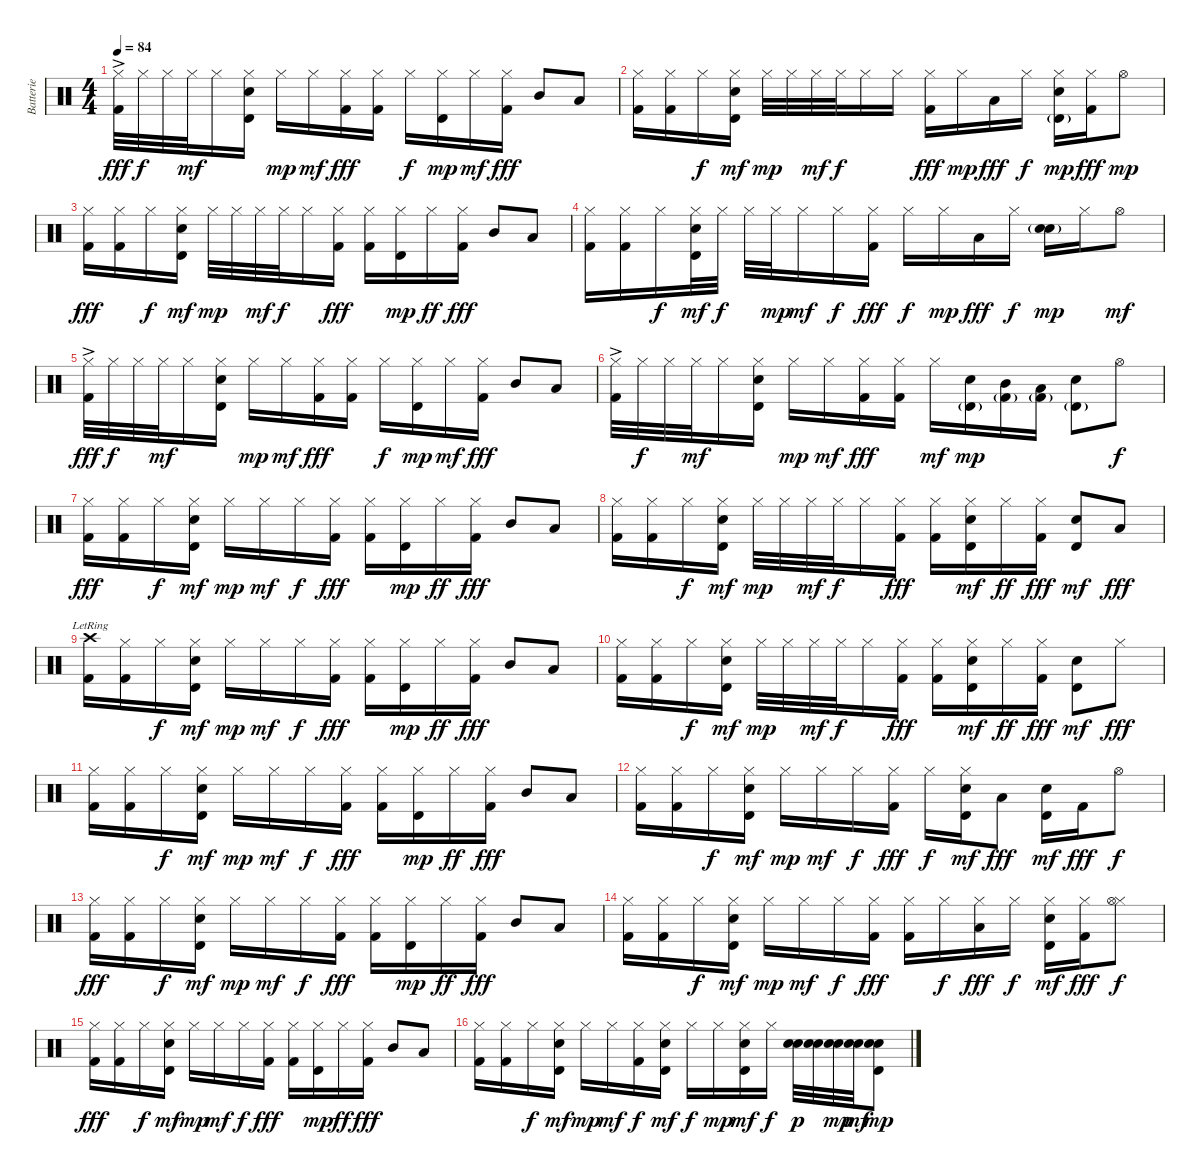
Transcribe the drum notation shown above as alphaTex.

\track ("Batterie" "Batterie") {instrument percussion}
\staff {score}
\articulation defaults
\ts (4 4)
\tempo 84
\clef neutral
\ks c
("Hi-Hat (closed)"{ac} "Kick (hit) 2").32{dy fff} "Hi-Hat (closed)".32{dy f} "Hi-Hat (closed)".32 "Hi-Hat (closed)".32{dy mf} "Hi-Hat (closed)".16 ("Hi-Hat (closed)" "Electric Snare (hit)" "Timbale high (hit)").16 "Hi-Hat (closed)".16{dy mp} "Hi-Hat (closed)".16{dy mf} ("Hi-Hat (closed)" "Kick (hit) 2").16{dy fff} ("Hi-Hat (closed)" "Kick (hit) 2").16 "Hi-Hat (closed)".16{dy f} ("Hi-Hat (closed)" "Timbale high (hit)").16{dy mp} "Hi-Hat (closed)".16{dy mf} ("Hi-Hat (closed)" "Kick (hit) 2").16{dy fff} "Mid Tom (hit)".8 "Low Tom (hit)".8 |
("Hi-Hat (closed)" "Kick (hit) 2").16 ("Hi-Hat (closed)" "Kick (hit) 2").16 "Hi-Hat (closed)".16{dy f} ("Hi-Hat (closed)" "Electric Snare (hit)" "Timbale high (hit)").16{dy mf} "Hi-Hat (closed)".32{dy mp} "Hi-Hat (closed)".32 "Hi-Hat (closed)".32{dy mf} "Hi-Hat (closed)".32{dy f} "Hi-Hat (closed)".16 "Hi-Hat (closed)".16 ("Hi-Hat (closed)" "Kick (hit) 2").16{dy fff} "Hi-Hat (closed)".16{dy mp} "Low Tom (hit)".16{dy fff} "Hi-Hat (closed)".16{dy f} ("Hi-Hat (closed)" "Electric Snare (hit)" "Timbale high (hit)"{g}).16{dy mp} ("Hi-Hat (closed)" "Kick (hit) 2").16{dy fff} "Hi-Hat (open)".8{dy mp} |
("Hi-Hat (closed)" "Kick (hit) 2").16{dy fff} ("Hi-Hat (closed)" "Kick (hit) 2").16 "Hi-Hat (closed)".16{dy f} ("Hi-Hat (closed)" "Electric Snare (hit)" "Timbale high (hit)").16{dy mf} "Hi-Hat (closed)".32{dy mp} "Hi-Hat (closed)".32 "Hi-Hat (closed)".32{dy mf} "Hi-Hat (closed)".32{dy f} "Hi-Hat (closed)".16 ("Hi-Hat (closed)" "Kick (hit) 2").16{dy fff} ("Hi-Hat (closed)" "Kick (hit) 2").16 ("Hi-Hat (closed)" "Timbale high (hit)").16{dy mp} "Hi-Hat (closed)".16{dy ff} ("Hi-Hat (closed)" "Kick (hit) 2").16{dy fff} "Mid Tom (hit)".8 "Low Tom (hit)".8 |
("Hi-Hat (closed)" "Kick (hit) 2").16 ("Hi-Hat (closed)" "Kick (hit) 2").16 "Hi-Hat (closed)".16{dy f} ("Hi-Hat (closed)" "Electric Snare (hit)" "Timbale high (hit)").32{dy mf} "Hi-Hat (closed)".32{dy f} "Hi-Hat (closed)".32 "Hi-Hat (closed)".32{dy mp} "Hi-Hat (closed)".16{dy mf} "Hi-Hat (closed)".16{dy f} ("Hi-Hat (closed)" "Kick (hit) 2").16{dy fff} "Hi-Hat (closed)".16{dy f} "Hi-Hat (closed)".16{dy mp} "Low Tom (hit)".16{dy fff} "Hi-Hat (closed)".16{dy f} ("Electric Snare (hit)" "Snare (hit) 2"{g}).16{dy mp} "Hi-Hat (closed)".16 "Hi-Hat (open)".8{dy mf} |
("Hi-Hat (closed)"{ac} "Kick (hit) 2").32{dy fff} "Hi-Hat (closed)".32{dy f} "Hi-Hat (closed)".32 "Hi-Hat (closed)".32{dy mf} "Hi-Hat (closed)".16 ("Hi-Hat (closed)" "Electric Snare (hit)" "Timbale high (hit)").16 "Hi-Hat (closed)".16{dy mp} "Hi-Hat (closed)".16{dy mf} ("Hi-Hat (closed)" "Kick (hit) 2").16{dy fff} ("Hi-Hat (closed)" "Kick (hit) 2").16 "Hi-Hat (closed)".16{dy f} ("Hi-Hat (closed)" "Timbale high (hit)").16{dy mp} "Hi-Hat (closed)".16{dy mf} ("Hi-Hat (closed)" "Kick (hit) 2").16{dy fff} "Mid Tom (hit)".8 "Low Tom (hit)".8 |
("Hi-Hat (closed)"{ac} "Kick (hit) 2").32 "Hi-Hat (closed)".32{dy f} "Hi-Hat (closed)".32 "Hi-Hat (closed)".32{dy mf} "Hi-Hat (closed)".16 ("Hi-Hat (closed)" "Electric Snare (hit)" "Timbale high (hit)").16 "Hi-Hat (closed)".16{dy mp} "Hi-Hat (closed)".16{dy mf} ("Hi-Hat (closed)" "Kick (hit) 2").16{dy fff} ("Hi-Hat (closed)" "Kick (hit) 2").16 "Hi-Hat (closed)".16{dy mf} ("Electric Snare (hit)" "Timbale high (hit)"{g}).16{dy mp} ("Mid Tom (hit)" "Kick (hit) 2"{g}).16 ("Low Tom (hit)" "Kick (hit) 2"{g}).16 ("Electric Snare (hit)" "Timbale high (hit)"{g}).8 "Hi-Hat (open)".8{dy f} |
("Hi-Hat (closed)" "Kick (hit) 2").16{dy fff} ("Hi-Hat (closed)" "Kick (hit) 2").16 "Hi-Hat (closed)".16{dy f} ("Hi-Hat (closed)" "Electric Snare (hit)" "Timbale high (hit)").16{dy mf} "Hi-Hat (closed)".16{dy mp} "Hi-Hat (closed)".16{dy mf} "Hi-Hat (closed)".16{dy f} ("Hi-Hat (closed)" "Kick (hit) 2").16{dy fff} ("Hi-Hat (closed)" "Kick (hit) 2").16 ("Hi-Hat (closed)" "Timbale high (hit)").16{dy mp} "Hi-Hat (closed)".16{dy ff} ("Hi-Hat (closed)" "Kick (hit) 2").16{dy fff} "Mid Tom (hit)".8 "Low Tom (hit)".8 |
("Hi-Hat (closed)" "Kick (hit) 2").16 ("Hi-Hat (closed)" "Kick (hit) 2").16 "Hi-Hat (closed)".16{dy f} ("Hi-Hat (closed)" "Electric Snare (hit)" "Timbale high (hit)").16{dy mf} "Hi-Hat (closed)".32{dy mp} "Hi-Hat (closed)".32 "Hi-Hat (closed)".32{dy mf} "Hi-Hat (closed)".32{dy f} "Hi-Hat (closed)".16 ("Hi-Hat (closed)" "Kick (hit) 2").16{dy fff} ("Hi-Hat (closed)" "Kick (hit) 2").16 ("Hi-Hat (closed)" "Electric Snare (hit)" "Timbale high (hit)").16{dy mf} "Hi-Hat (closed)".16{dy ff} ("Hi-Hat (closed)" "Kick (hit) 2").16{dy fff} ("Electric Snare (hit)" "Timbale high (hit)").8{dy mf} "Low Tom (hit)".8{dy fff} |
("Crash high (hit)"{lr} "Kick (hit) 2").16 ("Hi-Hat (closed)" "Kick (hit) 2").16 "Hi-Hat (closed)".16{dy f} ("Hi-Hat (closed)" "Electric Snare (hit)" "Timbale high (hit)").16{dy mf} "Hi-Hat (closed)".16{dy mp} "Hi-Hat (closed)".16{dy mf} "Hi-Hat (closed)".16{dy f} ("Hi-Hat (closed)" "Kick (hit) 2").16{dy fff} ("Hi-Hat (closed)" "Kick (hit) 2").16 ("Hi-Hat (closed)" "Timbale high (hit)").16{dy mp} "Hi-Hat (closed)".16{dy ff} ("Hi-Hat (closed)" "Kick (hit) 2").16{dy fff} "Mid Tom (hit)".8 "Low Tom (hit)".8 |
("Hi-Hat (closed)" "Kick (hit) 2").16 ("Hi-Hat (closed)" "Kick (hit) 2").16 "Hi-Hat (closed)".16{dy f} ("Hi-Hat (closed)" "Electric Snare (hit)" "Timbale high (hit)").16{dy mf} "Hi-Hat (closed)".32{dy mp} "Hi-Hat (closed)".32 "Hi-Hat (closed)".32{dy mf} "Hi-Hat (closed)".32{dy f} "Hi-Hat (closed)".16 ("Hi-Hat (closed)" "Kick (hit) 2").16{dy fff} ("Hi-Hat (closed)" "Kick (hit) 2").16 ("Hi-Hat (closed)" "Electric Snare (hit)" "Timbale high (hit)").16{dy mf} "Hi-Hat (closed)".16{dy ff} ("Hi-Hat (closed)" "Kick (hit) 2").16{dy fff} ("Electric Snare (hit)" "Timbale high (hit)").8{dy mf} "Hi-Hat (closed)".8{dy fff} |
("Hi-Hat (closed)" "Kick (hit) 2").16 ("Hi-Hat (closed)" "Kick (hit) 2").16 "Hi-Hat (closed)".16{dy f} ("Hi-Hat (closed)" "Electric Snare (hit)" "Timbale high (hit)").16{dy mf} "Hi-Hat (closed)".16{dy mp} "Hi-Hat (closed)".16{dy mf} "Hi-Hat (closed)".16{dy f} ("Hi-Hat (closed)" "Kick (hit) 2").16{dy fff} ("Hi-Hat (closed)" "Kick (hit) 2").16 ("Hi-Hat (closed)" "Timbale high (hit)").16{dy mp} "Hi-Hat (closed)".16{dy ff} ("Hi-Hat (closed)" "Kick (hit) 2").16{dy fff} "Mid Tom (hit)".8 "Low Tom (hit)".8 |
("Hi-Hat (closed)" "Kick (hit) 2").16 ("Hi-Hat (closed)" "Kick (hit) 2").16 "Hi-Hat (closed)".16{dy f} ("Hi-Hat (closed)" "Electric Snare (hit)" "Timbale high (hit)").16{dy mf} "Hi-Hat (closed)".16{dy mp} "Hi-Hat (closed)".16{dy mf} "Hi-Hat (closed)".16{dy f} ("Hi-Hat (closed)" "Kick (hit) 2").16{dy fff} "Hi-Hat (closed)".16{dy f} ("Hi-Hat (closed)" "Electric Snare (hit)" "Timbale high (hit)").16{dy mf} "Low Tom (hit)".8{dy fff} ("Electric Snare (hit)" "Timbale high (hit)").16{dy mf} "Kick (hit) 2".16{dy fff} "Hi-Hat (open)".8{dy f} |
("Hi-Hat (closed)" "Kick (hit) 2").16{dy fff} ("Hi-Hat (closed)" "Kick (hit) 2").16 "Hi-Hat (closed)".16{dy f} ("Hi-Hat (closed)" "Electric Snare (hit)" "Timbale high (hit)").16{dy mf} "Hi-Hat (closed)".16{dy mp} "Hi-Hat (closed)".16{dy mf} "Hi-Hat (closed)".16{dy f} ("Hi-Hat (closed)" "Kick (hit) 2").16{dy fff} ("Hi-Hat (closed)" "Kick (hit) 2").16 ("Hi-Hat (closed)" "Timbale high (hit)").16{dy mp} "Hi-Hat (closed)".16{dy ff} ("Hi-Hat (closed)" "Kick (hit) 2").16{dy fff} "Mid Tom (hit)".8 "Low Tom (hit)".8 |
("Hi-Hat (closed)" "Kick (hit) 2").16 ("Hi-Hat (closed)" "Kick (hit) 2").16 "Hi-Hat (closed)".16{dy f} ("Hi-Hat (closed)" "Electric Snare (hit)" "Timbale high (hit)").16{dy mf} "Hi-Hat (closed)".16{dy mp} "Hi-Hat (closed)".16{dy mf} "Hi-Hat (closed)".16{dy f} ("Hi-Hat (closed)" "Kick (hit) 2").16{dy fff} ("Hi-Hat (closed)" "Kick (hit) 2").16 "Hi-Hat (closed)".16{dy f} ("Hi-Hat (closed)" "Low Tom (hit)").16{dy fff} "Hi-Hat (closed)".16{dy f} ("Hi-Hat (closed)" "Electric Snare (hit)" "Timbale high (hit)").16{dy mf} ("Hi-Hat (closed)" "Kick (hit) 2").16{dy fff} ("Hi-Hat (closed)" "Hi-Hat (open)").8{dy f} |
("Hi-Hat (closed)" "Kick (hit) 2").16{dy fff} ("Hi-Hat (closed)" "Kick (hit) 2").16 "Hi-Hat (closed)".16{dy f} ("Hi-Hat (closed)" "Electric Snare (hit)" "Timbale high (hit)").16{dy mf} "Hi-Hat (closed)".16{dy mp} "Hi-Hat (closed)".16{dy mf} "Hi-Hat (closed)".16{dy f} ("Hi-Hat (closed)" "Kick (hit) 2").16{dy fff} ("Hi-Hat (closed)" "Kick (hit) 2").16 ("Hi-Hat (closed)" "Timbale high (hit)").16{dy mp} "Hi-Hat (closed)".16{dy ff} ("Hi-Hat (closed)" "Kick (hit) 2").16{dy fff} "Mid Tom (hit)".8 "Low Tom (hit)".8 |
("Hi-Hat (closed)" "Kick (hit) 2").16 ("Hi-Hat (closed)" "Kick (hit) 2").16 "Hi-Hat (closed)".16{dy f} ("Hi-Hat (closed)" "Electric Snare (hit)" "Timbale high (hit)").16{dy mf} "Hi-Hat (closed)".16{dy mp} "Hi-Hat (closed)".16{dy mf} ("Hi-Hat (closed)" "Kick (hit) 2").16{dy f} ("Hi-Hat (closed)" "Electric Snare (hit)" "Timbale high (hit)").16{dy mf} "Hi-Hat (closed)".16{dy f} "Hi-Hat (closed)".16{dy mp} ("Hi-Hat (closed)" "Electric Snare (hit)" "Timbale high (hit)").16{dy mf} "Hi-Hat (closed)".16{dy f} ("Electric Snare (hit)" "Snare (hit) 2").32{dy p} ("Electric Snare (hit)" "Snare (hit) 2").32 ("Electric Snare (hit)" "Snare (hit) 2").32{dy mp} ("Electric Snare (hit)" "Snare (hit) 2").32{dy mf} ("Electric Snare (hit)" "Snare (hit) 2" "Timbale high (hit)").8{dy mp}
